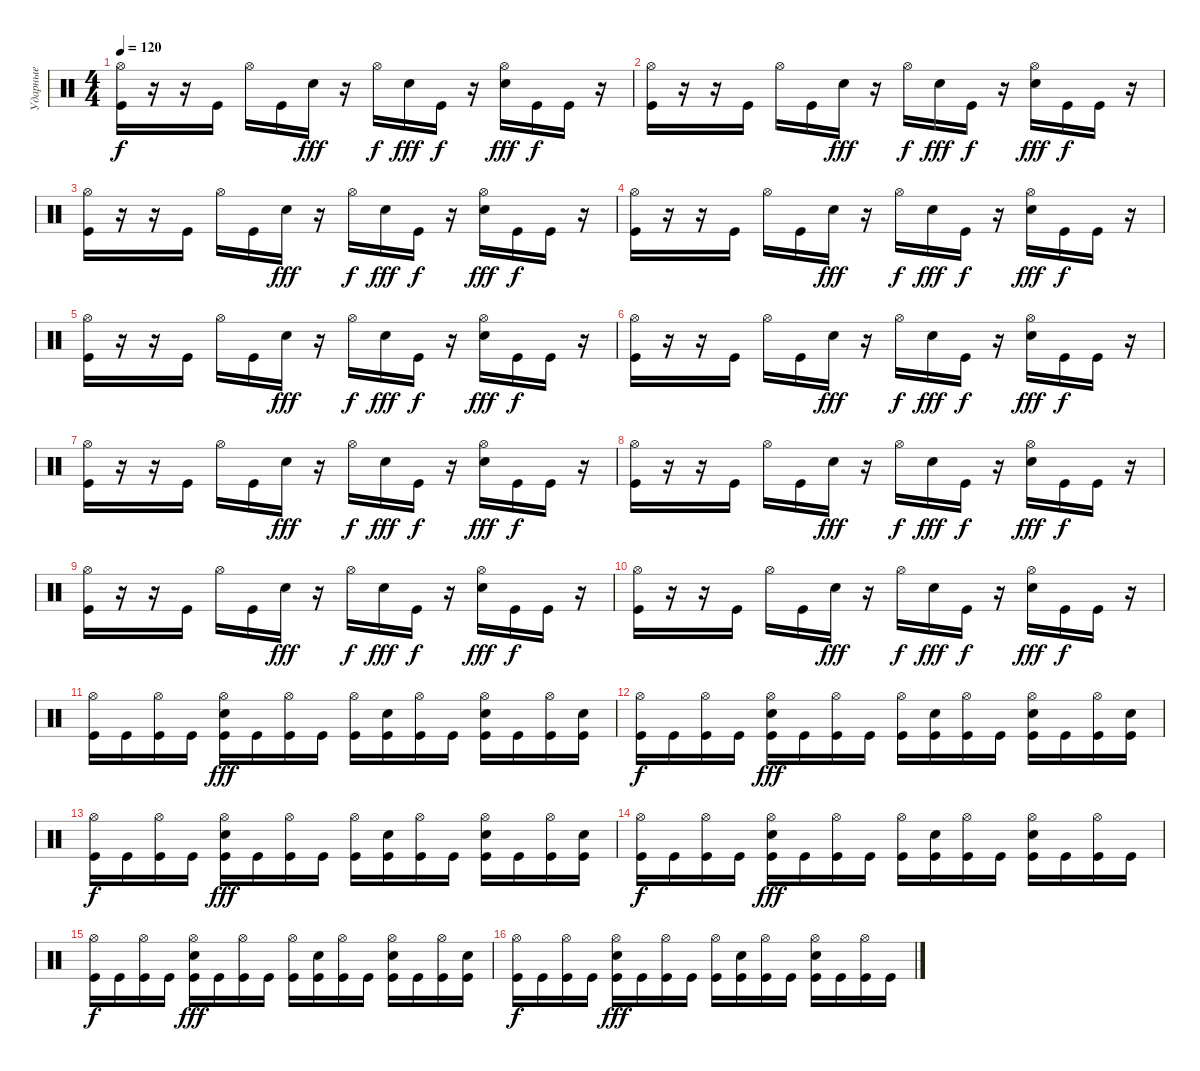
\track ("Ударные" "Ударные") {instrument percussion}
\staff {score}
\articulation defaults
\ts (4 4)
\tempo 120
\clef neutral
\ks c
("Hi-Hat (open)" "Kick (hit)").16{dy f} r.16 r.16 "Kick (hit)".16 "Hi-Hat (open)".16 "Kick (hit)".16 "Electric Snare (hit)".16{dy fff} r.16 "Hi-Hat (open)".16{dy f} "Electric Snare (hit)".16{dy fff} "Kick (hit)".16{dy f} r.16 ("Hi-Hat (open)" "Electric Snare (hit)").16{dy fff} "Kick (hit)".16{dy f} "Kick (hit)".16 r.16 |
("Hi-Hat (open)" "Kick (hit)").16 r.16 r.16 "Kick (hit)".16 "Hi-Hat (open)".16 "Kick (hit)".16 "Electric Snare (hit)".16{dy fff} r.16 "Hi-Hat (open)".16{dy f} "Electric Snare (hit)".16{dy fff} "Kick (hit)".16{dy f} r.16 ("Hi-Hat (open)" "Electric Snare (hit)").16{dy fff} "Kick (hit)".16{dy f} "Kick (hit)".16 r.16 |
("Hi-Hat (open)" "Kick (hit)").16 r.16 r.16 "Kick (hit)".16 "Hi-Hat (open)".16 "Kick (hit)".16 "Electric Snare (hit)".16{dy fff} r.16 "Hi-Hat (open)".16{dy f} "Electric Snare (hit)".16{dy fff} "Kick (hit)".16{dy f} r.16 ("Hi-Hat (open)" "Electric Snare (hit)").16{dy fff} "Kick (hit)".16{dy f} "Kick (hit)".16 r.16 |
("Hi-Hat (open)" "Kick (hit)").16 r.16 r.16 "Kick (hit)".16 "Hi-Hat (open)".16 "Kick (hit)".16 "Electric Snare (hit)".16{dy fff} r.16 "Hi-Hat (open)".16{dy f} "Electric Snare (hit)".16{dy fff} "Kick (hit)".16{dy f} r.16 ("Hi-Hat (open)" "Electric Snare (hit)").16{dy fff} "Kick (hit)".16{dy f} "Kick (hit)".16 r.16 |
("Hi-Hat (open)" "Kick (hit)").16 r.16 r.16 "Kick (hit)".16 "Hi-Hat (open)".16 "Kick (hit)".16 "Electric Snare (hit)".16{dy fff} r.16 "Hi-Hat (open)".16{dy f} "Electric Snare (hit)".16{dy fff} "Kick (hit)".16{dy f} r.16 ("Hi-Hat (open)" "Electric Snare (hit)").16{dy fff} "Kick (hit)".16{dy f} "Kick (hit)".16 r.16 |
("Hi-Hat (open)" "Kick (hit)").16 r.16 r.16 "Kick (hit)".16 "Hi-Hat (open)".16 "Kick (hit)".16 "Electric Snare (hit)".16{dy fff} r.16 "Hi-Hat (open)".16{dy f} "Electric Snare (hit)".16{dy fff} "Kick (hit)".16{dy f} r.16 ("Hi-Hat (open)" "Electric Snare (hit)").16{dy fff} "Kick (hit)".16{dy f} "Kick (hit)".16 r.16 |
("Hi-Hat (open)" "Kick (hit)").16 r.16 r.16 "Kick (hit)".16 "Hi-Hat (open)".16 "Kick (hit)".16 "Electric Snare (hit)".16{dy fff} r.16 "Hi-Hat (open)".16{dy f} "Electric Snare (hit)".16{dy fff} "Kick (hit)".16{dy f} r.16 ("Hi-Hat (open)" "Electric Snare (hit)").16{dy fff} "Kick (hit)".16{dy f} "Kick (hit)".16 r.16 |
("Hi-Hat (open)" "Kick (hit)").16 r.16 r.16 "Kick (hit)".16 "Hi-Hat (open)".16 "Kick (hit)".16 "Electric Snare (hit)".16{dy fff} r.16 "Hi-Hat (open)".16{dy f} "Electric Snare (hit)".16{dy fff} "Kick (hit)".16{dy f} r.16 ("Hi-Hat (open)" "Electric Snare (hit)").16{dy fff} "Kick (hit)".16{dy f} "Kick (hit)".16 r.16 |
("Hi-Hat (open)" "Kick (hit)").16 r.16 r.16 "Kick (hit)".16 "Hi-Hat (open)".16 "Kick (hit)".16 "Electric Snare (hit)".16{dy fff} r.16 "Hi-Hat (open)".16{dy f} "Electric Snare (hit)".16{dy fff} "Kick (hit)".16{dy f} r.16 ("Hi-Hat (open)" "Electric Snare (hit)").16{dy fff} "Kick (hit)".16{dy f} "Kick (hit)".16 r.16 |
("Hi-Hat (open)" "Kick (hit)").16 r.16 r.16 "Kick (hit)".16 "Hi-Hat (open)".16 "Kick (hit)".16 "Electric Snare (hit)".16{dy fff} r.16 "Hi-Hat (open)".16{dy f} "Electric Snare (hit)".16{dy fff} "Kick (hit)".16{dy f} r.16 ("Hi-Hat (open)" "Electric Snare (hit)").16{dy fff} "Kick (hit)".16{dy f} "Kick (hit)".16 r.16 |
("Hi-Hat (open)" "Kick (hit)").16 "Kick (hit)".16 ("Hi-Hat (open)" "Kick (hit)").16 "Kick (hit)".16 ("Hi-Hat (open)" "Electric Snare (hit)" "Kick (hit)").16{dy fff} "Kick (hit)".16 ("Hi-Hat (open)" "Kick (hit)").16 "Kick (hit)".16 ("Hi-Hat (open)" "Kick (hit)").16 ("Electric Snare (hit)" "Kick (hit)").16 ("Hi-Hat (open)" "Kick (hit)").16 "Kick (hit)".16 ("Hi-Hat (open)" "Electric Snare (hit)" "Kick (hit)").16 "Kick (hit)".16 ("Hi-Hat (open)" "Kick (hit)").16 ("Electric Snare (hit)" "Kick (hit)").16 |
("Hi-Hat (open)" "Kick (hit)").16{dy f} "Kick (hit)".16 ("Hi-Hat (open)" "Kick (hit)").16 "Kick (hit)".16 ("Hi-Hat (open)" "Electric Snare (hit)" "Kick (hit)").16{dy fff} "Kick (hit)".16 ("Hi-Hat (open)" "Kick (hit)").16 "Kick (hit)".16 ("Hi-Hat (open)" "Kick (hit)").16 ("Electric Snare (hit)" "Kick (hit)").16 ("Hi-Hat (open)" "Kick (hit)").16 "Kick (hit)".16 ("Hi-Hat (open)" "Electric Snare (hit)" "Kick (hit)").16 "Kick (hit)".16 ("Hi-Hat (open)" "Kick (hit)").16 ("Electric Snare (hit)" "Kick (hit)").16 |
("Hi-Hat (open)" "Kick (hit)").16{dy f} "Kick (hit)".16 ("Hi-Hat (open)" "Kick (hit)").16 "Kick (hit)".16 ("Hi-Hat (open)" "Electric Snare (hit)" "Kick (hit)").16{dy fff} "Kick (hit)".16 ("Hi-Hat (open)" "Kick (hit)").16 "Kick (hit)".16 ("Hi-Hat (open)" "Kick (hit)").16 ("Electric Snare (hit)" "Kick (hit)").16 ("Hi-Hat (open)" "Kick (hit)").16 "Kick (hit)".16 ("Hi-Hat (open)" "Electric Snare (hit)" "Kick (hit)").16 "Kick (hit)".16 ("Hi-Hat (open)" "Kick (hit)").16 ("Electric Snare (hit)" "Kick (hit)").16 |
("Hi-Hat (open)" "Kick (hit)").16{dy f} "Kick (hit)".16 ("Hi-Hat (open)" "Kick (hit)").16 "Kick (hit)".16 ("Hi-Hat (open)" "Electric Snare (hit)" "Kick (hit)").16{dy fff} "Kick (hit)".16 ("Hi-Hat (open)" "Kick (hit)").16 "Kick (hit)".16 ("Hi-Hat (open)" "Kick (hit)").16 ("Electric Snare (hit)" "Kick (hit)").16 ("Hi-Hat (open)" "Kick (hit)").16 "Kick (hit)".16 ("Hi-Hat (open)" "Electric Snare (hit)" "Kick (hit)").16 "Kick (hit)".16 ("Hi-Hat (open)" "Kick (hit)").16 "Kick (hit)".16 |
("Hi-Hat (open)" "Kick (hit)").16{dy f} "Kick (hit)".16 ("Hi-Hat (open)" "Kick (hit)").16 "Kick (hit)".16 ("Hi-Hat (open)" "Electric Snare (hit)" "Kick (hit)").16{dy fff} "Kick (hit)".16 ("Hi-Hat (open)" "Kick (hit)").16 "Kick (hit)".16 ("Hi-Hat (open)" "Kick (hit)").16 ("Electric Snare (hit)" "Kick (hit)").16 ("Hi-Hat (open)" "Kick (hit)").16 "Kick (hit)".16 ("Hi-Hat (open)" "Electric Snare (hit)" "Kick (hit)").16 "Kick (hit)".16 ("Hi-Hat (open)" "Kick (hit)").16 ("Electric Snare (hit)" "Kick (hit)").16 |
("Hi-Hat (open)" "Kick (hit)").16{dy f} "Kick (hit)".16 ("Hi-Hat (open)" "Kick (hit)").16 "Kick (hit)".16 ("Hi-Hat (open)" "Electric Snare (hit)" "Kick (hit)").16{dy fff} "Kick (hit)".16 ("Hi-Hat (open)" "Kick (hit)").16 "Kick (hit)".16 ("Hi-Hat (open)" "Kick (hit)").16 ("Electric Snare (hit)" "Kick (hit)").16 ("Hi-Hat (open)" "Kick (hit)").16 "Kick (hit)".16 ("Hi-Hat (open)" "Electric Snare (hit)" "Kick (hit)").16 "Kick (hit)".16 ("Hi-Hat (open)" "Kick (hit)").16 "Kick (hit)".16
